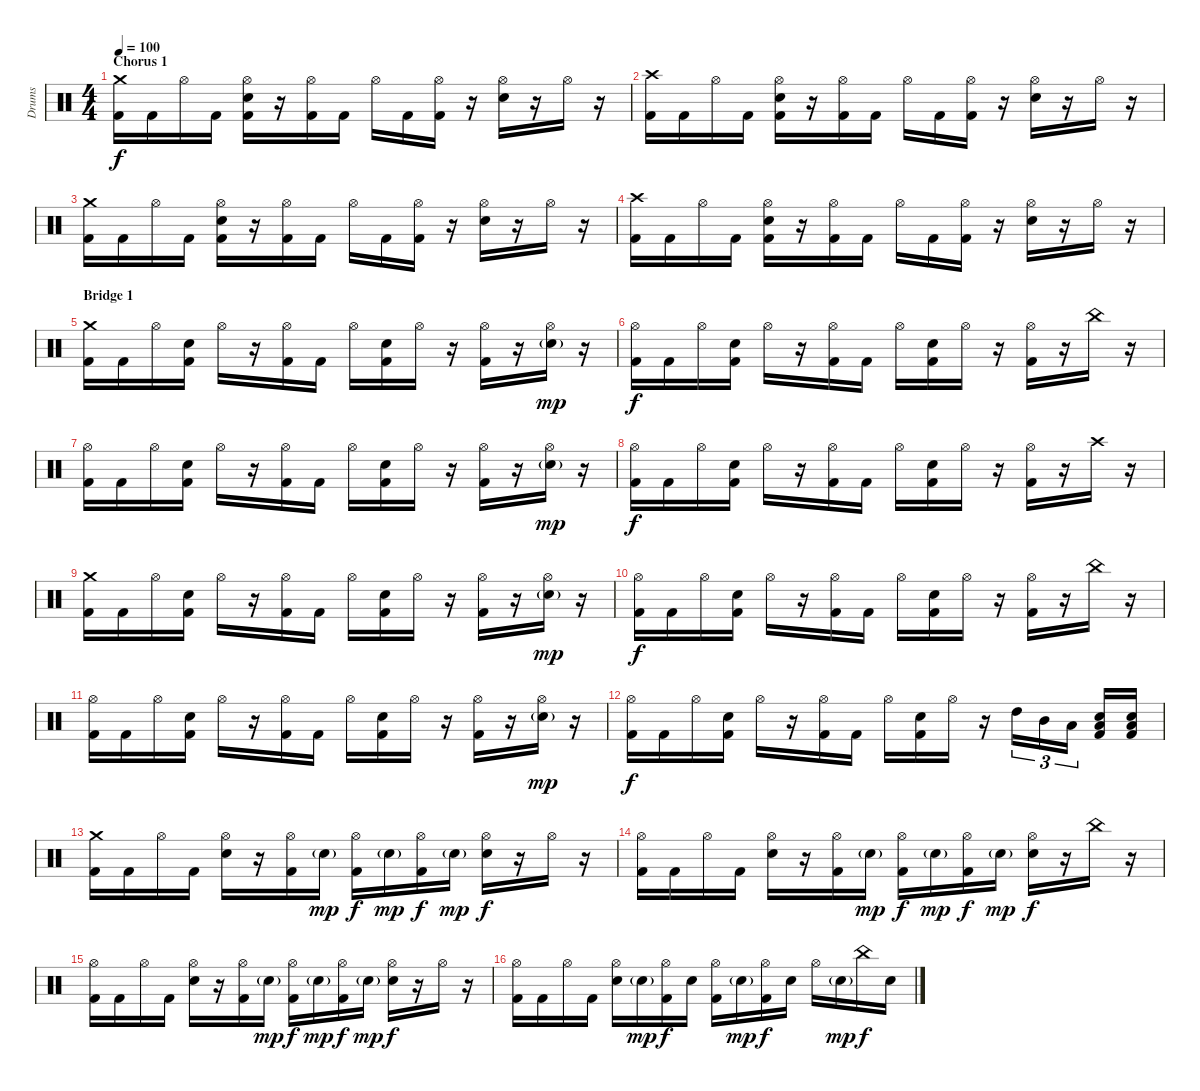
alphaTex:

\track ("Drums" "Drums") {instrument percussion}
\staff {score}
\articulation defaults
\ts (4 4)
\section ("" "Chorus 1")
\tempo 100
\clef neutral
\ks c
("Crash medium (hit)" "Kick (hit) 2").16{dy f} "Kick (hit) 2".16 "Hi-Hat (open)".16 "Kick (hit) 2".16 ("Hi-Hat (open)" "Snare (hit) 2" "Kick (hit) 2").16 r.16 ("Hi-Hat (open)" "Kick (hit) 2").16 "Kick (hit) 2".16 "Hi-Hat (open)".16 "Kick (hit) 2".16 ("Hi-Hat (open)" "Kick (hit) 2").16 r.16 ("Hi-Hat (open)" "Snare (hit) 2").16 r.16 "Hi-Hat (open)".16 r.16 |
("Crash high (hit)" "Kick (hit) 2").16 "Kick (hit) 2".16 "Hi-Hat (open)".16 "Kick (hit) 2".16 ("Hi-Hat (open)" "Snare (hit) 2" "Kick (hit) 2").16 r.16 ("Hi-Hat (open)" "Kick (hit) 2").16 "Kick (hit) 2".16 "Hi-Hat (open)".16 "Kick (hit) 2".16 ("Hi-Hat (open)" "Kick (hit) 2").16 r.16 ("Hi-Hat (open)" "Snare (hit) 2").16 r.16 "Hi-Hat (open)".16 r.16 |
("Crash medium (hit)" "Kick (hit) 2").16 "Kick (hit) 2".16 "Hi-Hat (open)".16 "Kick (hit) 2".16 ("Hi-Hat (open)" "Snare (hit) 2" "Kick (hit) 2").16 r.16 ("Hi-Hat (open)" "Kick (hit) 2").16 "Kick (hit) 2".16 "Hi-Hat (open)".16 "Kick (hit) 2".16 ("Hi-Hat (open)" "Kick (hit) 2").16 r.16 ("Hi-Hat (open)" "Snare (hit) 2").16 r.16 "Hi-Hat (open)".16 r.16 |
("Crash high (hit)" "Kick (hit) 2").16 "Kick (hit) 2".16 "Hi-Hat (open)".16 "Kick (hit) 2".16 ("Hi-Hat (open)" "Snare (hit) 2" "Kick (hit) 2").16 r.16 ("Hi-Hat (open)" "Kick (hit) 2").16 "Kick (hit) 2".16 "Hi-Hat (open)".16 "Kick (hit) 2".16 ("Hi-Hat (open)" "Kick (hit) 2").16 r.16 ("Hi-Hat (open)" "Snare (hit) 2").16 r.16 "Hi-Hat (open)".16 r.16 |
\section ("" "Bridge 1")
("Crash medium (hit)" "Kick (hit) 2").16 "Kick (hit) 2".16 "Hi-Hat (open)".16 ("Snare (hit) 2" "Kick (hit) 2").16 "Hi-Hat (open)".16 r.16 ("Hi-Hat (open)" "Kick (hit) 2").16 "Kick (hit) 2".16 "Hi-Hat (open)".16 ("Snare (hit) 2" "Kick (hit) 2").16 "Hi-Hat (open)".16 r.16 ("Hi-Hat (open)" "Kick (hit) 2").16 r.16 ("Hi-Hat (open)" "Snare (hit) 2"{g}).16{dy mp} r.16 |
("Hi-Hat (open)" "Kick (hit) 2").16{dy f} "Kick (hit) 2".16 "Hi-Hat (open)".16 ("Snare (hit) 2" "Kick (hit) 2").16 "Hi-Hat (open)".16 r.16 ("Hi-Hat (open)" "Kick (hit) 2").16 "Kick (hit) 2".16 "Hi-Hat (open)".16 ("Snare (hit) 2" "Kick (hit) 2").16 "Hi-Hat (open)".16 r.16 ("Hi-Hat (open)" "Kick (hit) 2").16 r.16 "China (hit)".16 r.16 |
("Hi-Hat (open)" "Kick (hit) 2").16 "Kick (hit) 2".16 "Hi-Hat (open)".16 ("Snare (hit) 2" "Kick (hit) 2").16 "Hi-Hat (open)".16 r.16 ("Hi-Hat (open)" "Kick (hit) 2").16 "Kick (hit) 2".16 "Hi-Hat (open)".16 ("Snare (hit) 2" "Kick (hit) 2").16 "Hi-Hat (open)".16 r.16 ("Hi-Hat (open)" "Kick (hit) 2").16 r.16 ("Hi-Hat (open)" "Snare (hit) 2"{g}).16{dy mp} r.16 |
("Hi-Hat (open)" "Kick (hit) 2").16{dy f} "Kick (hit) 2".16 "Hi-Hat (open)".16 ("Snare (hit) 2" "Kick (hit) 2").16 "Hi-Hat (open)".16 r.16 ("Hi-Hat (open)" "Kick (hit) 2").16 "Kick (hit) 2".16 "Hi-Hat (open)".16 ("Snare (hit) 2" "Kick (hit) 2").16 "Hi-Hat (open)".16 r.16 ("Hi-Hat (open)" "Kick (hit) 2").16 r.16 "Crash high (hit)".16 r.16 |
("Crash medium (hit)" "Kick (hit) 2").16 "Kick (hit) 2".16 "Hi-Hat (open)".16 ("Snare (hit) 2" "Kick (hit) 2").16 "Hi-Hat (open)".16 r.16 ("Hi-Hat (open)" "Kick (hit) 2").16 "Kick (hit) 2".16 "Hi-Hat (open)".16 ("Snare (hit) 2" "Kick (hit) 2").16 "Hi-Hat (open)".16 r.16 ("Hi-Hat (open)" "Kick (hit) 2").16 r.16 ("Hi-Hat (open)" "Snare (hit) 2"{g}).16{dy mp} r.16 |
("Hi-Hat (open)" "Kick (hit) 2").16{dy f} "Kick (hit) 2".16 "Hi-Hat (open)".16 ("Snare (hit) 2" "Kick (hit) 2").16 "Hi-Hat (open)".16 r.16 ("Hi-Hat (open)" "Kick (hit) 2").16 "Kick (hit) 2".16 "Hi-Hat (open)".16 ("Snare (hit) 2" "Kick (hit) 2").16 "Hi-Hat (open)".16 r.16 ("Hi-Hat (open)" "Kick (hit) 2").16 r.16 "China (hit)".16 r.16 |
("Hi-Hat (open)" "Kick (hit) 2").16 "Kick (hit) 2".16 "Hi-Hat (open)".16 ("Snare (hit) 2" "Kick (hit) 2").16 "Hi-Hat (open)".16 r.16 ("Hi-Hat (open)" "Kick (hit) 2").16 "Kick (hit) 2".16 "Hi-Hat (open)".16 ("Snare (hit) 2" "Kick (hit) 2").16 "Hi-Hat (open)".16 r.16 ("Hi-Hat (open)" "Kick (hit) 2").16 r.16 ("Hi-Hat (open)" "Snare (hit) 2"{g}).16{dy mp} r.16 |
("Hi-Hat (open)" "Kick (hit) 2").16{dy f balance 16} "Kick (hit) 2".16 "Hi-Hat (open)".16 ("Snare (hit) 2" "Kick (hit) 2").16 "Hi-Hat (open)".16{balance 0} r.16 ("Hi-Hat (open)" "Kick (hit) 2").16 "Kick (hit) 2".16 "Hi-Hat (open)".16 ("Snare (hit) 2" "Kick (hit) 2").16 "Hi-Hat (open)".16 r.16 "High Tom (hit)".16{tu (3 2) balance 8} "Mid Tom (hit)".16{tu (3 2)} "Low Tom (hit)".16{tu (3 2)} ("Snare (hit) 2" "Low Floor Tom (hit)" "Kick (hit) 2").16 ("Snare (hit) 2" "Low Floor Tom (hit)" "Kick (hit) 2").16 |
("Crash medium (hit)" "Kick (hit) 2").16{balance 8} "Kick (hit) 2".16 "Hi-Hat (open)".16 "Kick (hit) 2".16 ("Hi-Hat (open)" "Snare (hit) 2").16 r.16 ("Hi-Hat (open)" "Kick (hit) 2").16 "Snare (hit) 2"{g}.16{dy mp} ("Hi-Hat (open)" "Kick (hit) 2").16{dy f} "Snare (hit) 2"{g}.16{dy mp} ("Hi-Hat (open)" "Kick (hit) 2").16{dy f} "Snare (hit) 2"{g}.16{dy mp} ("Hi-Hat (open)" "Snare (hit) 2").16{dy f} r.16 "Hi-Hat (open)".16 r.16 |
("Hi-Hat (open)" "Kick (hit) 2").16 "Kick (hit) 2".16 "Hi-Hat (open)".16 "Kick (hit) 2".16 ("Hi-Hat (open)" "Snare (hit) 2").16 r.16 ("Hi-Hat (open)" "Kick (hit) 2").16 "Snare (hit) 2"{g}.16{dy mp} ("Hi-Hat (open)" "Kick (hit) 2").16{dy f} "Snare (hit) 2"{g}.16{dy mp} ("Hi-Hat (open)" "Kick (hit) 2").16{dy f} "Snare (hit) 2"{g}.16{dy mp} ("Hi-Hat (open)" "Snare (hit) 2").16{dy f} r.16 "China (hit)".16 r.16 |
("Hi-Hat (open)" "Kick (hit) 2").16 "Kick (hit) 2".16 "Hi-Hat (open)".16 "Kick (hit) 2".16 ("Hi-Hat (open)" "Snare (hit) 2").16 r.16 ("Hi-Hat (open)" "Kick (hit) 2").16 "Snare (hit) 2"{g}.16{dy mp} ("Hi-Hat (open)" "Kick (hit) 2").16{dy f} "Snare (hit) 2"{g}.16{dy mp} ("Hi-Hat (open)" "Kick (hit) 2").16{dy f} "Snare (hit) 2"{g}.16{dy mp} ("Hi-Hat (open)" "Snare (hit) 2").16{dy f} r.16 "Hi-Hat (open)".16 r.16 |
("Hi-Hat (open)" "Kick (hit) 2").16 "Kick (hit) 2".16 "Hi-Hat (open)".16 "Kick (hit) 2".16 ("Hi-Hat (open)" "Snare (hit) 2").16 "Snare (hit) 2"{g}.16{dy mp} ("Hi-Hat (open)" "Kick (hit) 2").16{dy f} "Snare (hit) 2".16 ("Hi-Hat (open)" "Kick (hit) 2").16 "Snare (hit) 2"{g}.16{dy mp} ("Hi-Hat (open)" "Kick (hit) 2").16{dy f} "Snare (hit) 2".16 "Hi-Hat (open)".16 "Snare (hit) 2"{g}.16{dy mp} "China (hit)".16{dy f} "Snare (hit) 2".16
